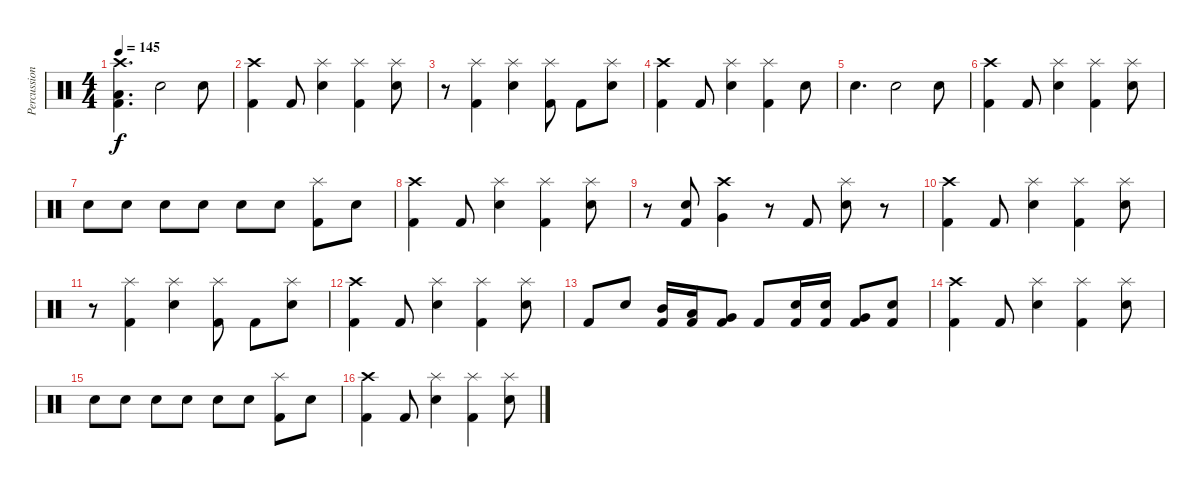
\track ("Percussion" "Percussion") {instrument percussion}
\staff {score}
\articulation defaults
\ts (4 4)
\tempo 145
\clef neutral
\ks c
("Crash high (hit)" "Low Floor Tom (hit)" "Kick (hit) 2").4{d dy f} "Electric Snare (hit)".2 "Electric Snare (hit)".8 |
("Crash high (hit)" "Kick (hit) 2").4 "Kick (hit) 2".8 ("Splash (hit)" "Electric Snare (hit)").4 ("Splash (hit)" "Kick (hit) 2").4 ("Splash (hit)" "Electric Snare (hit)").8 |
r.8 ("Splash (hit)" "Kick (hit) 2").4 ("Splash (hit)" "Electric Snare (hit)").4 ("Splash (hit)" "Kick (hit) 2").8 "Kick (hit) 2".8 ("Splash (hit)" "Electric Snare (hit)").8 |
("Crash high (hit)" "Kick (hit) 2").4 "Kick (hit) 2".8 ("Splash (hit)" "Electric Snare (hit)").4 ("Splash (hit)" "Kick (hit) 2").4 "Electric Snare (hit)".8 |
"Electric Snare (hit)".4{d} "Electric Snare (hit)".2 "Electric Snare (hit)".8 |
("Crash high (hit)" "Kick (hit) 2").4 "Kick (hit) 2".8 ("Splash (hit)" "Electric Snare (hit)").4 ("Splash (hit)" "Kick (hit) 2").4 ("Splash (hit)" "Electric Snare (hit)").8 |
"Electric Snare (hit)".8 "Electric Snare (hit)".8 "Electric Snare (hit)".8 "Electric Snare (hit)".8 "Electric Snare (hit)".8 "Electric Snare (hit)".8 ("Splash (hit)" "Kick (hit) 2").8 "Electric Snare (hit)".8 |
("Crash high (hit)" "Kick (hit) 2").4 "Kick (hit) 2".8 ("Splash (hit)" "Electric Snare (hit)").4 ("Splash (hit)" "Kick (hit) 2").4 ("Splash (hit)" "Electric Snare (hit)").8 |
r.8 ("Electric Snare (hit)" "Kick (hit) 2").8 ("Crash high (hit)" "Very Low Tom (hit)").4 r.8 "Kick (hit) 2".8 ("Splash (hit)" "Electric Snare (hit)").8 r.8 |
("Crash high (hit)" "Kick (hit) 2").4 "Kick (hit) 2".8 ("Splash (hit)" "Electric Snare (hit)").4 ("Splash (hit)" "Kick (hit) 2").4 ("Splash (hit)" "Electric Snare (hit)").8 |
r.8 ("Splash (hit)" "Kick (hit) 2").4 ("Splash (hit)" "Electric Snare (hit)").4 ("Splash (hit)" "Kick (hit) 2").8 "Kick (hit) 2".8 ("Splash (hit)" "Electric Snare (hit)").8 |
("Crash high (hit)" "Kick (hit) 2").4 "Kick (hit) 2".8 ("Splash (hit)" "Electric Snare (hit)").4 ("Splash (hit)" "Kick (hit) 2").4 ("Splash (hit)" "Electric Snare (hit)").8 |
"Kick (hit) 2".8 "Electric Snare (hit)".8 ("Mid Tom (hit)" "Kick (hit) 2").16 ("Low Tom (hit)" "Kick (hit) 2").16 ("Very Low Tom (hit)" "Kick (hit) 2").8 "Kick (hit) 2".8 ("Electric Snare (hit)" "Kick (hit) 2").16 ("Electric Snare (hit)" "Kick (hit) 2").16 ("Very Low Tom (hit)" "Kick (hit) 2").8 ("Electric Snare (hit)" "Kick (hit) 2").8 |
("Crash high (hit)" "Kick (hit) 2").4 "Kick (hit) 2".8 ("Splash (hit)" "Electric Snare (hit)").4 ("Splash (hit)" "Kick (hit) 2").4 ("Splash (hit)" "Electric Snare (hit)").8 |
"Electric Snare (hit)".8 "Electric Snare (hit)".8 "Electric Snare (hit)".8 "Electric Snare (hit)".8 "Electric Snare (hit)".8 "Electric Snare (hit)".8 ("Splash (hit)" "Kick (hit) 2").8 "Electric Snare (hit)".8 |
("Crash high (hit)" "Kick (hit) 2").4 "Kick (hit) 2".8 ("Splash (hit)" "Electric Snare (hit)").4 ("Splash (hit)" "Kick (hit) 2").4 ("Splash (hit)" "Electric Snare (hit)").8
